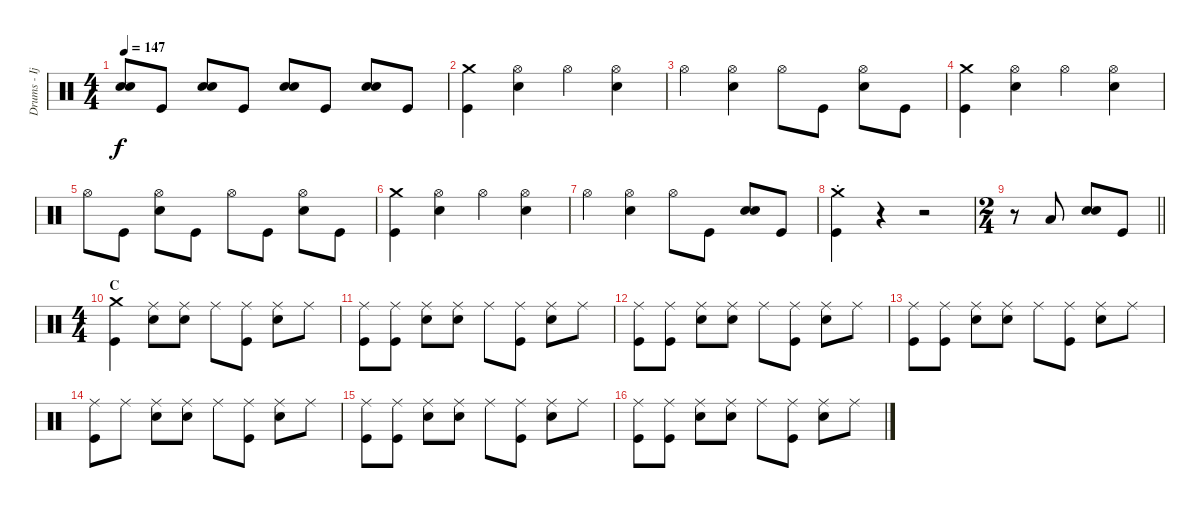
\track ("Drums - Ijichi" "Drums - Ij") {instrument percussion}
\staff {score}
\articulation defaults
\ts (4 4)
\tempo 147
\clef neutral
\ks c
("Electric Snare (hit)" "Electric Snare (hit)").8{dy f} "Kick (hit)".8 ("Electric Snare (hit)" "Electric Snare (hit)").8 "Kick (hit)".8 ("Electric Snare (hit)" "Electric Snare (hit)").8 "Kick (hit)".8 ("Electric Snare (hit)" "Electric Snare (hit)").8 "Kick (hit)".8 |
("Crash medium (hit)" "Kick (hit)").4 ("Hi-Hat (open)" "Electric Snare (hit)").4 "Hi-Hat (open)".4 ("Hi-Hat (open)" "Electric Snare (hit)").4 |
"Hi-Hat (open)".4 ("Hi-Hat (open)" "Electric Snare (hit)").4 "Hi-Hat (open)".8 "Kick (hit)".8 ("Hi-Hat (open)" "Electric Snare (hit)").8 "Kick (hit)".8 |
("Crash medium (hit)" "Kick (hit)").4 ("Hi-Hat (open)" "Electric Snare (hit)").4 "Hi-Hat (open)".4 ("Hi-Hat (open)" "Electric Snare (hit)").4 |
"Hi-Hat (open)".8 "Kick (hit)".8 ("Hi-Hat (open)" "Electric Snare (hit)").8 "Kick (hit)".8 "Hi-Hat (open)".8 "Kick (hit)".8 ("Hi-Hat (open)" "Electric Snare (hit)").8 "Kick (hit)".8 |
("Crash medium (hit)" "Kick (hit)").4 ("Hi-Hat (open)" "Electric Snare (hit)").4 "Hi-Hat (open)".4 ("Hi-Hat (open)" "Electric Snare (hit)").4 |
"Hi-Hat (open)".4 ("Hi-Hat (open)" "Electric Snare (hit)").4 "Hi-Hat (open)".8 "Kick (hit)".8 ("Electric Snare (hit)" "Electric Snare (hit)").8 "Kick (hit)".8 |
("Crash medium (hit)"{st} "Kick (hit)").4 r.4 r.2 |
\ts (2 4)
\barLineRight lightlight
r.8 "Low Tom (hit)".8 ("Electric Snare (hit)" "Electric Snare (hit)").8 "Kick (hit)".8 |
\ts (4 4)
\section ("" "C")
("Crash medium (hit)" "Kick (hit)").4 ("Ride (middle)" "Electric Snare (hit)").8 ("Ride (middle)" "Electric Snare (hit)").8 "Ride (middle)".8 ("Ride (middle)" "Kick (hit)").8 ("Ride (middle)" "Electric Snare (hit)").8 "Ride (middle)".8 |
("Ride (middle)" "Kick (hit)").8 ("Ride (middle)" "Kick (hit)").8 ("Ride (middle)" "Electric Snare (hit)").8 ("Ride (middle)" "Electric Snare (hit)").8 "Ride (middle)".8 ("Ride (middle)" "Kick (hit)").8 ("Ride (middle)" "Electric Snare (hit)").8 "Ride (middle)".8 |
("Ride (middle)" "Kick (hit)").8 ("Ride (middle)" "Kick (hit)").8 ("Ride (middle)" "Electric Snare (hit)").8 ("Ride (middle)" "Electric Snare (hit)").8 "Ride (middle)".8 ("Ride (middle)" "Kick (hit)").8 ("Ride (middle)" "Electric Snare (hit)").8 "Ride (middle)".8 |
("Ride (middle)" "Kick (hit)").8 ("Ride (middle)" "Kick (hit)").8 ("Ride (middle)" "Electric Snare (hit)").8 ("Ride (middle)" "Electric Snare (hit)").8 "Ride (middle)".8 ("Ride (middle)" "Kick (hit)").8 ("Ride (middle)" "Electric Snare (hit)").8 "Ride (middle)".8 |
("Ride (middle)" "Kick (hit)").8 "Ride (middle)".8 ("Ride (middle)" "Electric Snare (hit)").8 ("Ride (middle)" "Electric Snare (hit)").8 "Ride (middle)".8 ("Ride (middle)" "Kick (hit)").8 ("Ride (middle)" "Electric Snare (hit)").8 "Ride (middle)".8 |
("Ride (middle)" "Kick (hit)").8 ("Ride (middle)" "Kick (hit)").8 ("Ride (middle)" "Electric Snare (hit)").8 ("Ride (middle)" "Electric Snare (hit)").8 "Ride (middle)".8 ("Ride (middle)" "Kick (hit)").8 ("Ride (middle)" "Electric Snare (hit)").8 "Ride (middle)".8 |
("Ride (middle)" "Kick (hit)").8 ("Ride (middle)" "Kick (hit)").8 ("Ride (middle)" "Electric Snare (hit)").8 ("Ride (middle)" "Electric Snare (hit)").8 "Ride (middle)".8 ("Ride (middle)" "Kick (hit)").8 ("Ride (middle)" "Electric Snare (hit)").8 "Ride (middle)".8
